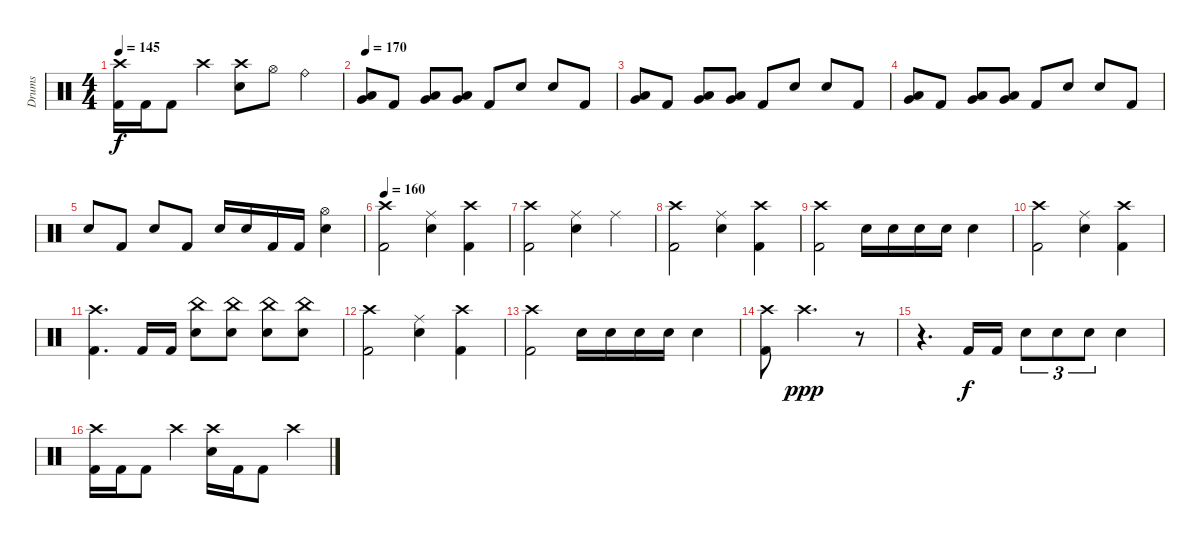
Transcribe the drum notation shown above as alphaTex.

\track ("Drums" "Drums") {instrument percussion}
\staff {score}
\articulation defaults
\ts (4 4)
\tempo 145
\clef neutral
\ks c
("Crash high (hit)" "Kick (hit) 2").16{dy f} "Kick (hit) 2".16 "Kick (hit) 2".8 "Crash high (hit)".4 ("Crash high (hit)" "Electric Snare (hit)").8 "Hi-Hat (open)".8 "Ride (bell)".4 |
\tempo 170
("Low Tom (hit)" "Very Low Tom (hit)").8 "Kick (hit) 2".8 ("Low Tom (hit)" "Very Low Tom (hit)").8 ("Low Tom (hit)" "Very Low Tom (hit)").8 "Kick (hit) 2".8 "Electric Snare (hit)".8 "Electric Snare (hit)".8 "Kick (hit) 2".8 |
("Low Tom (hit)" "Very Low Tom (hit)").8 "Kick (hit) 2".8 ("Low Tom (hit)" "Very Low Tom (hit)").8 ("Low Tom (hit)" "Very Low Tom (hit)").8 "Kick (hit) 2".8 "Electric Snare (hit)".8 "Electric Snare (hit)".8 "Kick (hit) 2".8 |
("Low Tom (hit)" "Very Low Tom (hit)").8 "Kick (hit) 2".8 ("Low Tom (hit)" "Very Low Tom (hit)").8 ("Low Tom (hit)" "Very Low Tom (hit)").8 "Kick (hit) 2".8 "Electric Snare (hit)".8 "Electric Snare (hit)".8 "Kick (hit) 2".8 |
"Electric Snare (hit)".8 "Kick (hit) 2".8 "Electric Snare (hit)".8 "Kick (hit) 2".8 "Electric Snare (hit)".16 "Electric Snare (hit)".16 "Kick (hit) 2".16 "Kick (hit) 2".16 ("Hi-Hat (open)" "Electric Snare (hit)").4 |
\tempo 160
("Crash high (hit)" "Kick (hit) 2").2 ("Ride (middle)" "Electric Snare (hit)").4 ("Crash high (hit)" "Kick (hit) 2").4 |
("Crash high (hit)" "Kick (hit) 2").2 ("Ride (middle)" "Electric Snare (hit)").4 "Ride (middle)".4 |
("Crash high (hit)" "Kick (hit) 2").2 ("Ride (middle)" "Electric Snare (hit)").4 ("Crash high (hit)" "Kick (hit) 2").4 |
("Crash high (hit)" "Kick (hit) 2").2 "Electric Snare (hit)".16 "Electric Snare (hit)".16 "Electric Snare (hit)".16 "Electric Snare (hit)".16 "Electric Snare (hit)".4 |
("Crash high (hit)" "Kick (hit) 2").2 ("Ride (middle)" "Electric Snare (hit)").4 ("Crash high (hit)" "Kick (hit) 2").4 |
("Crash high (hit)" "Kick (hit) 2").4{d} "Kick (hit) 2".16 "Kick (hit) 2".16 ("China (hit)" "Electric Snare (hit)").8 ("China (hit)" "Electric Snare (hit)").8 ("China (hit)" "Electric Snare (hit)").8 ("China (hit)" "Electric Snare (hit)").8 |
("Crash high (hit)" "Kick (hit) 2").2 ("Ride (middle)" "Electric Snare (hit)").4 ("Crash high (hit)" "Kick (hit) 2").4 |
("Crash high (hit)" "Kick (hit) 2").2 "Electric Snare (hit)".16 "Electric Snare (hit)".16 "Electric Snare (hit)".16 "Electric Snare (hit)".16 "Electric Snare (hit)".4 |
("Crash high (hit)" "Kick (hit) 2").8 "Crash high (hit)".2{d dy ppp} r.8 |
r.4{d} "Kick (hit) 2".16{dy f} "Kick (hit) 2".16 "Electric Snare (hit)".8{tu (3 2)} "Electric Snare (hit)".8{tu (3 2)} "Electric Snare (hit)".8{tu (3 2)} "Electric Snare (hit)".4 |
("Crash high (hit)" "Kick (hit) 2").16 "Kick (hit) 2".16 "Kick (hit) 2".8 "Crash high (hit)".4 ("Crash high (hit)" "Electric Snare (hit)").16 "Kick (hit) 2".16 "Kick (hit) 2".8 "Crash high (hit)".4
